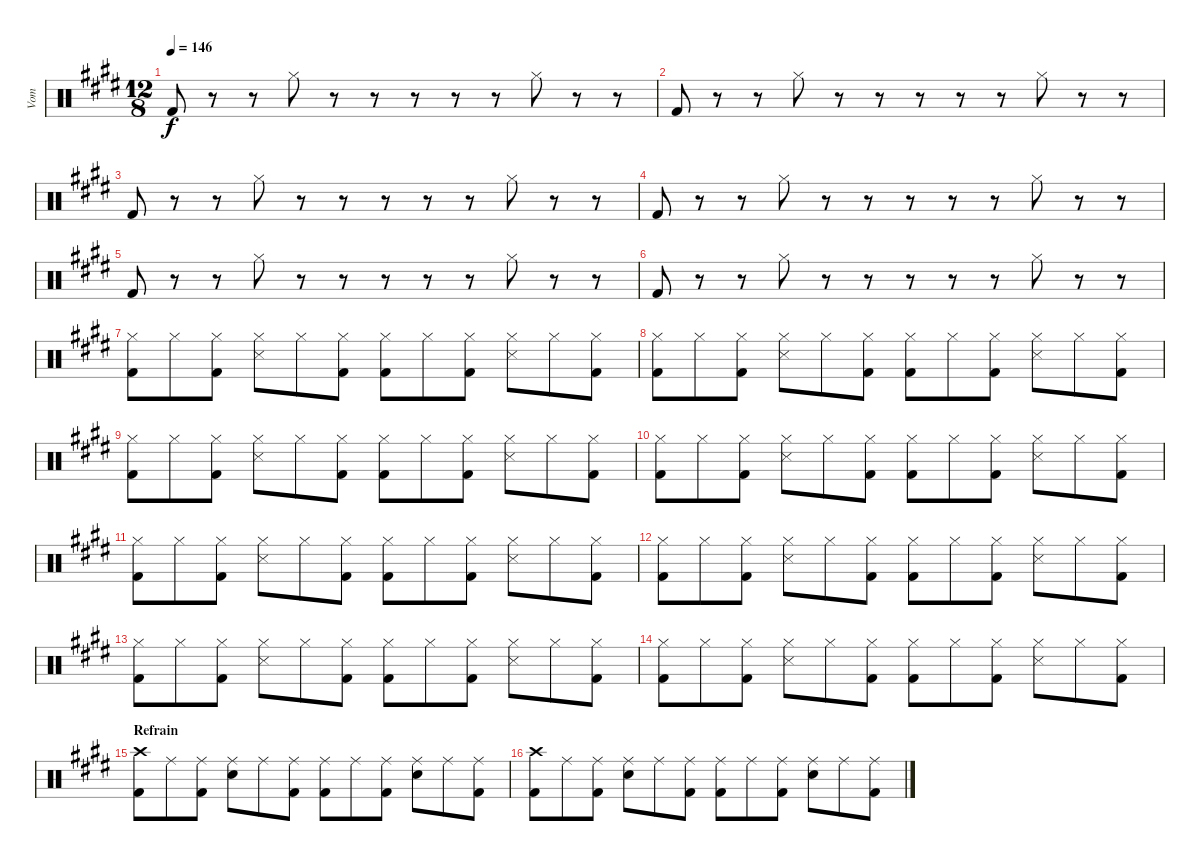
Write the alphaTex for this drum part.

\track ("Vom" "Vom") {instrument percussion}
\staff {score}
\articulation defaults
\ts (12 8)
\tempo 146
\clef neutral
\ks e "Kick (hit) 2".8{dy f}
r.8 r.8 "Hi-Hat (closed)".8 r.8 r.8 r.8 r.8 r.8 "Hi-Hat (closed)".8 r.8 r.8 |
"Kick (hit) 2".8 r.8 r.8 "Hi-Hat (closed)".8 r.8 r.8 r.8 r.8 r.8 "Hi-Hat (closed)".8 r.8 r.8 |
"Kick (hit) 2".8 r.8 r.8 "Hi-Hat (closed)".8 r.8 r.8 r.8 r.8 r.8 "Hi-Hat (closed)".8 r.8 r.8 |
"Kick (hit) 2".8 r.8 r.8 "Hi-Hat (closed)".8 r.8 r.8 r.8 r.8 r.8 "Hi-Hat (closed)".8 r.8 r.8 |
"Kick (hit) 2".8 r.8 r.8 "Hi-Hat (closed)".8 r.8 r.8 r.8 r.8 r.8 "Hi-Hat (closed)".8 r.8 r.8 |
"Kick (hit) 2".8 r.8 r.8 "Hi-Hat (closed)".8 r.8 r.8 r.8 r.8 r.8 "Hi-Hat (closed)".8 r.8 r.8 |
("Hi-Hat (closed)" "Kick (hit) 2").8 "Hi-Hat (closed)".8 ("Hi-Hat (closed)" "Kick (hit) 2").8 ("Hi-Hat (closed)" "Snare (side stick) 3").8 "Hi-Hat (closed)".8 ("Hi-Hat (closed)" "Kick (hit) 2").8 ("Hi-Hat (closed)" "Kick (hit) 2").8 "Hi-Hat (closed)".8 ("Hi-Hat (closed)" "Kick (hit) 2").8 ("Hi-Hat (closed)" "Snare (side stick) 3").8 "Hi-Hat (closed)".8 ("Hi-Hat (closed)" "Kick (hit) 2").8 |
("Hi-Hat (closed)" "Kick (hit) 2").8 "Hi-Hat (closed)".8 ("Hi-Hat (closed)" "Kick (hit) 2").8 ("Hi-Hat (closed)" "Snare (side stick) 3").8 "Hi-Hat (closed)".8 ("Hi-Hat (closed)" "Kick (hit) 2").8 ("Hi-Hat (closed)" "Kick (hit) 2").8 "Hi-Hat (closed)".8 ("Hi-Hat (closed)" "Kick (hit) 2").8 ("Hi-Hat (closed)" "Snare (side stick) 3").8 "Hi-Hat (closed)".8 ("Hi-Hat (closed)" "Kick (hit) 2").8 |
("Hi-Hat (closed)" "Kick (hit) 2").8 "Hi-Hat (closed)".8 ("Hi-Hat (closed)" "Kick (hit) 2").8 ("Hi-Hat (closed)" "Snare (side stick) 3").8 "Hi-Hat (closed)".8 ("Hi-Hat (closed)" "Kick (hit) 2").8 ("Hi-Hat (closed)" "Kick (hit) 2").8 "Hi-Hat (closed)".8 ("Hi-Hat (closed)" "Kick (hit) 2").8 ("Hi-Hat (closed)" "Snare (side stick) 3").8 "Hi-Hat (closed)".8 ("Hi-Hat (closed)" "Kick (hit) 2").8 |
("Hi-Hat (closed)" "Kick (hit) 2").8 "Hi-Hat (closed)".8 ("Hi-Hat (closed)" "Kick (hit) 2").8 ("Hi-Hat (closed)" "Snare (side stick) 3").8 "Hi-Hat (closed)".8 ("Hi-Hat (closed)" "Kick (hit) 2").8 ("Hi-Hat (closed)" "Kick (hit) 2").8 "Hi-Hat (closed)".8 ("Hi-Hat (closed)" "Kick (hit) 2").8 ("Hi-Hat (closed)" "Snare (side stick) 3").8 "Hi-Hat (closed)".8 ("Hi-Hat (closed)" "Kick (hit) 2").8 |
("Hi-Hat (closed)" "Kick (hit) 2").8 "Hi-Hat (closed)".8 ("Hi-Hat (closed)" "Kick (hit) 2").8 ("Hi-Hat (closed)" "Snare (side stick) 3").8 "Hi-Hat (closed)".8 ("Hi-Hat (closed)" "Kick (hit) 2").8 ("Hi-Hat (closed)" "Kick (hit) 2").8 "Hi-Hat (closed)".8 ("Hi-Hat (closed)" "Kick (hit) 2").8 ("Hi-Hat (closed)" "Snare (side stick) 3").8 "Hi-Hat (closed)".8 ("Hi-Hat (closed)" "Kick (hit) 2").8 |
("Hi-Hat (closed)" "Kick (hit) 2").8 "Hi-Hat (closed)".8 ("Hi-Hat (closed)" "Kick (hit) 2").8 ("Hi-Hat (closed)" "Snare (side stick) 3").8 "Hi-Hat (closed)".8 ("Hi-Hat (closed)" "Kick (hit) 2").8 ("Hi-Hat (closed)" "Kick (hit) 2").8 "Hi-Hat (closed)".8 ("Hi-Hat (closed)" "Kick (hit) 2").8 ("Hi-Hat (closed)" "Snare (side stick) 3").8 "Hi-Hat (closed)".8 ("Hi-Hat (closed)" "Kick (hit) 2").8 |
("Hi-Hat (closed)" "Kick (hit) 2").8 "Hi-Hat (closed)".8 ("Hi-Hat (closed)" "Kick (hit) 2").8 ("Hi-Hat (closed)" "Snare (side stick) 3").8 "Hi-Hat (closed)".8 ("Hi-Hat (closed)" "Kick (hit) 2").8 ("Hi-Hat (closed)" "Kick (hit) 2").8 "Hi-Hat (closed)".8 ("Hi-Hat (closed)" "Kick (hit) 2").8 ("Hi-Hat (closed)" "Snare (side stick) 3").8 "Hi-Hat (closed)".8 ("Hi-Hat (closed)" "Kick (hit) 2").8 |
("Hi-Hat (closed)" "Kick (hit) 2").8 "Hi-Hat (closed)".8 ("Hi-Hat (closed)" "Kick (hit) 2").8 ("Hi-Hat (closed)" "Snare (side stick) 3").8 "Hi-Hat (closed)".8 ("Hi-Hat (closed)" "Kick (hit) 2").8 ("Hi-Hat (closed)" "Kick (hit) 2").8 "Hi-Hat (closed)".8 ("Hi-Hat (closed)" "Kick (hit) 2").8 ("Hi-Hat (closed)" "Snare (side stick) 3").8 "Hi-Hat (closed)".8 ("Hi-Hat (closed)" "Kick (hit) 2").8 |
\section ("" "Refrain")
("Crash high (hit)" "Kick (hit) 2").8 "Ride (middle)".8 ("Ride (middle)" "Kick (hit) 2").8 ("Ride (middle)" "Snare (hit) 2").8 "Ride (middle)".8 ("Ride (middle)" "Kick (hit) 2").8 ("Ride (middle)" "Kick (hit) 2").8 "Ride (middle)".8 ("Ride (middle)" "Kick (hit) 2").8 ("Ride (middle)" "Snare (hit) 2").8 "Ride (middle)".8 ("Ride (middle)" "Kick (hit) 2").8 |
("Crash high (hit)" "Kick (hit) 2").8 "Ride (middle)".8 ("Ride (middle)" "Kick (hit) 2").8 ("Ride (middle)" "Snare (hit) 2").8 "Ride (middle)".8 ("Ride (middle)" "Kick (hit) 2").8 ("Ride (middle)" "Kick (hit) 2").8 "Ride (middle)".8 ("Ride (middle)" "Kick (hit) 2").8 ("Ride (middle)" "Snare (hit) 2").8 "Ride (middle)".8 ("Ride (middle)" "Kick (hit) 2").8
